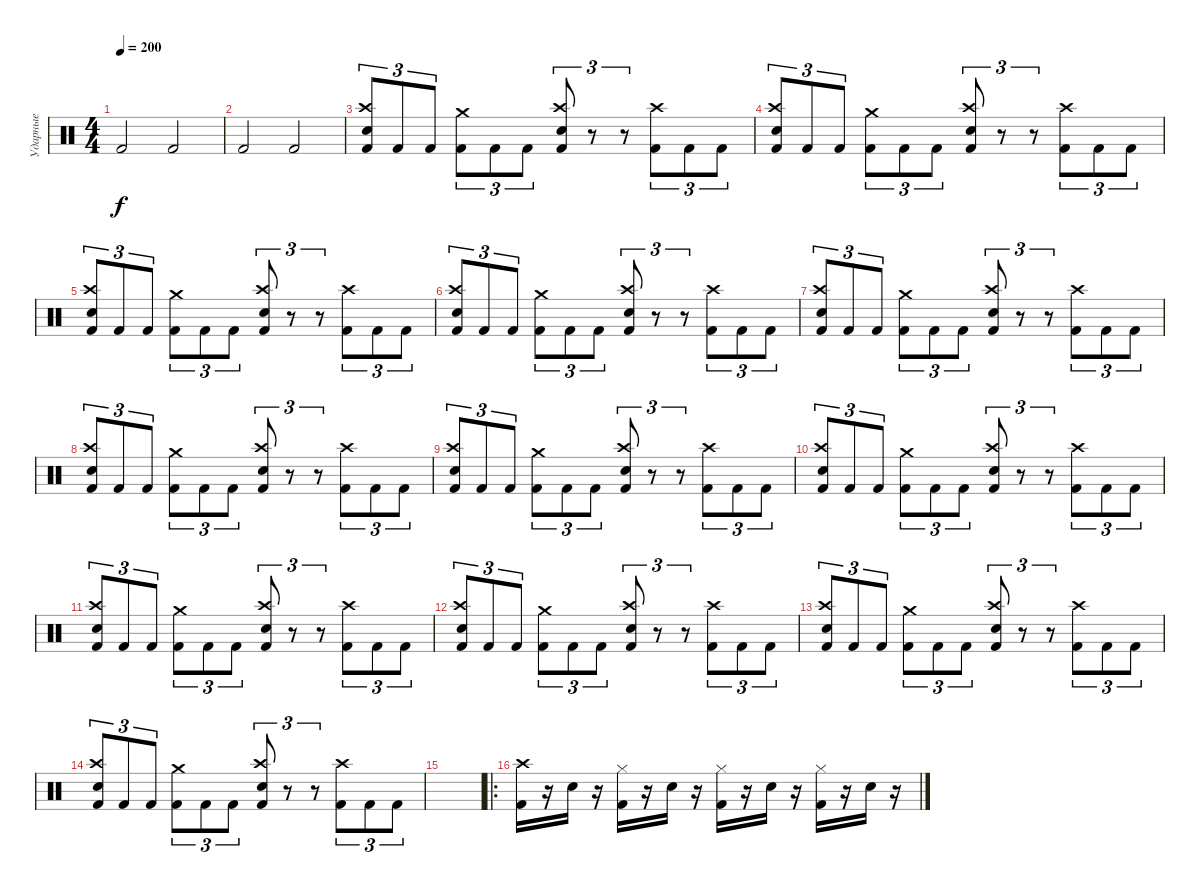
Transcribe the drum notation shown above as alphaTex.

\track ("Ударные" "Ударные") {instrument percussion}
\staff {score}
\articulation defaults
\ts (4 4)
\tempo 200
\clef neutral
\ks c "Kick (hit) 2".2{dy f} "Kick (hit) 2".2
|
"Kick (hit) 2".2 "Kick (hit) 2".2 |
("Crash high (hit)" "Electric Snare (hit)" "Kick (hit) 2").8{tu (3 2)} "Kick (hit) 2".8{tu (3 2)} "Kick (hit) 2".8{tu (3 2)} ("Crash medium (hit)" "Kick (hit) 2").8{tu (3 2)} "Kick (hit) 2".8{tu (3 2)} "Kick (hit) 2".8{tu (3 2)} ("Crash high (hit)" "Electric Snare (hit)" "Kick (hit) 2").8{tu (3 2)} r.8{tu (3 2)} r.8{tu (3 2)} ("Crash high (hit)" "Kick (hit) 2").8{tu (3 2)} "Kick (hit) 2".8{tu (3 2)} "Kick (hit) 2".8{tu (3 2)} |
("Crash high (hit)" "Electric Snare (hit)" "Kick (hit) 2").8{tu (3 2)} "Kick (hit) 2".8{tu (3 2)} "Kick (hit) 2".8{tu (3 2)} ("Crash medium (hit)" "Kick (hit) 2").8{tu (3 2)} "Kick (hit) 2".8{tu (3 2)} "Kick (hit) 2".8{tu (3 2)} ("Crash high (hit)" "Electric Snare (hit)" "Kick (hit) 2").8{tu (3 2)} r.8{tu (3 2)} r.8{tu (3 2)} ("Crash high (hit)" "Kick (hit) 2").8{tu (3 2)} "Kick (hit) 2".8{tu (3 2)} "Kick (hit) 2".8{tu (3 2)} |
("Crash high (hit)" "Electric Snare (hit)" "Kick (hit) 2").8{tu (3 2)} "Kick (hit) 2".8{tu (3 2)} "Kick (hit) 2".8{tu (3 2)} ("Crash medium (hit)" "Kick (hit) 2").8{tu (3 2)} "Kick (hit) 2".8{tu (3 2)} "Kick (hit) 2".8{tu (3 2)} ("Crash high (hit)" "Electric Snare (hit)" "Kick (hit) 2").8{tu (3 2)} r.8{tu (3 2)} r.8{tu (3 2)} ("Crash high (hit)" "Kick (hit) 2").8{tu (3 2)} "Kick (hit) 2".8{tu (3 2)} "Kick (hit) 2".8{tu (3 2)} |
("Crash high (hit)" "Electric Snare (hit)" "Kick (hit) 2").8{tu (3 2)} "Kick (hit) 2".8{tu (3 2)} "Kick (hit) 2".8{tu (3 2)} ("Crash medium (hit)" "Kick (hit) 2").8{tu (3 2)} "Kick (hit) 2".8{tu (3 2)} "Kick (hit) 2".8{tu (3 2)} ("Crash high (hit)" "Electric Snare (hit)" "Kick (hit) 2").8{tu (3 2)} r.8{tu (3 2)} r.8{tu (3 2)} ("Crash high (hit)" "Kick (hit) 2").8{tu (3 2)} "Kick (hit) 2".8{tu (3 2)} "Kick (hit) 2".8{tu (3 2)} |
("Crash high (hit)" "Electric Snare (hit)" "Kick (hit) 2").8{tu (3 2)} "Kick (hit) 2".8{tu (3 2)} "Kick (hit) 2".8{tu (3 2)} ("Crash medium (hit)" "Kick (hit) 2").8{tu (3 2)} "Kick (hit) 2".8{tu (3 2)} "Kick (hit) 2".8{tu (3 2)} ("Crash high (hit)" "Electric Snare (hit)" "Kick (hit) 2").8{tu (3 2)} r.8{tu (3 2)} r.8{tu (3 2)} ("Crash high (hit)" "Kick (hit) 2").8{tu (3 2)} "Kick (hit) 2".8{tu (3 2)} "Kick (hit) 2".8{tu (3 2)} |
("Crash high (hit)" "Electric Snare (hit)" "Kick (hit) 2").8{tu (3 2)} "Kick (hit) 2".8{tu (3 2)} "Kick (hit) 2".8{tu (3 2)} ("Crash medium (hit)" "Kick (hit) 2").8{tu (3 2)} "Kick (hit) 2".8{tu (3 2)} "Kick (hit) 2".8{tu (3 2)} ("Crash high (hit)" "Electric Snare (hit)" "Kick (hit) 2").8{tu (3 2)} r.8{tu (3 2)} r.8{tu (3 2)} ("Crash high (hit)" "Kick (hit) 2").8{tu (3 2)} "Kick (hit) 2".8{tu (3 2)} "Kick (hit) 2".8{tu (3 2)} |
("Crash high (hit)" "Electric Snare (hit)" "Kick (hit) 2").8{tu (3 2)} "Kick (hit) 2".8{tu (3 2)} "Kick (hit) 2".8{tu (3 2)} ("Crash medium (hit)" "Kick (hit) 2").8{tu (3 2)} "Kick (hit) 2".8{tu (3 2)} "Kick (hit) 2".8{tu (3 2)} ("Crash high (hit)" "Electric Snare (hit)" "Kick (hit) 2").8{tu (3 2)} r.8{tu (3 2)} r.8{tu (3 2)} ("Crash high (hit)" "Kick (hit) 2").8{tu (3 2)} "Kick (hit) 2".8{tu (3 2)} "Kick (hit) 2".8{tu (3 2)} |
("Crash high (hit)" "Electric Snare (hit)" "Kick (hit) 2").8{tu (3 2)} "Kick (hit) 2".8{tu (3 2)} "Kick (hit) 2".8{tu (3 2)} ("Crash medium (hit)" "Kick (hit) 2").8{tu (3 2)} "Kick (hit) 2".8{tu (3 2)} "Kick (hit) 2".8{tu (3 2)} ("Crash high (hit)" "Electric Snare (hit)" "Kick (hit) 2").8{tu (3 2)} r.8{tu (3 2)} r.8{tu (3 2)} ("Crash high (hit)" "Kick (hit) 2").8{tu (3 2)} "Kick (hit) 2".8{tu (3 2)} "Kick (hit) 2".8{tu (3 2)} |
("Crash high (hit)" "Electric Snare (hit)" "Kick (hit) 2").8{tu (3 2)} "Kick (hit) 2".8{tu (3 2)} "Kick (hit) 2".8{tu (3 2)} ("Crash medium (hit)" "Kick (hit) 2").8{tu (3 2)} "Kick (hit) 2".8{tu (3 2)} "Kick (hit) 2".8{tu (3 2)} ("Crash high (hit)" "Electric Snare (hit)" "Kick (hit) 2").8{tu (3 2)} r.8{tu (3 2)} r.8{tu (3 2)} ("Crash high (hit)" "Kick (hit) 2").8{tu (3 2)} "Kick (hit) 2".8{tu (3 2)} "Kick (hit) 2".8{tu (3 2)} |
("Crash high (hit)" "Electric Snare (hit)" "Kick (hit) 2").8{tu (3 2)} "Kick (hit) 2".8{tu (3 2)} "Kick (hit) 2".8{tu (3 2)} ("Crash medium (hit)" "Kick (hit) 2").8{tu (3 2)} "Kick (hit) 2".8{tu (3 2)} "Kick (hit) 2".8{tu (3 2)} ("Crash high (hit)" "Electric Snare (hit)" "Kick (hit) 2").8{tu (3 2)} r.8{tu (3 2)} r.8{tu (3 2)} ("Crash high (hit)" "Kick (hit) 2").8{tu (3 2)} "Kick (hit) 2".8{tu (3 2)} "Kick (hit) 2".8{tu (3 2)} |
("Crash high (hit)" "Electric Snare (hit)" "Kick (hit) 2").8{tu (3 2)} "Kick (hit) 2".8{tu (3 2)} "Kick (hit) 2".8{tu (3 2)} ("Crash medium (hit)" "Kick (hit) 2").8{tu (3 2)} "Kick (hit) 2".8{tu (3 2)} "Kick (hit) 2".8{tu (3 2)} ("Crash high (hit)" "Electric Snare (hit)" "Kick (hit) 2").8{tu (3 2)} r.8{tu (3 2)} r.8{tu (3 2)} ("Crash high (hit)" "Kick (hit) 2").8{tu (3 2)} "Kick (hit) 2".8{tu (3 2)} "Kick (hit) 2".8{tu (3 2)} |
("Crash high (hit)" "Electric Snare (hit)" "Kick (hit) 2").8{tu (3 2)} "Kick (hit) 2".8{tu (3 2)} "Kick (hit) 2".8{tu (3 2)} ("Crash medium (hit)" "Kick (hit) 2").8{tu (3 2)} "Kick (hit) 2".8{tu (3 2)} "Kick (hit) 2".8{tu (3 2)} ("Crash high (hit)" "Electric Snare (hit)" "Kick (hit) 2").8{tu (3 2)} r.8{tu (3 2)} r.8{tu (3 2)} ("Crash high (hit)" "Kick (hit) 2").8{tu (3 2)} "Kick (hit) 2".8{tu (3 2)} "Kick (hit) 2".8{tu (3 2)} |
|
\ro
("Crash high (hit)" "Kick (hit) 2").16 r.16 "Electric Snare (hit)".16 r.16 ("Hi-Hat (closed)" "Kick (hit) 2").16 r.16 "Electric Snare (hit)".16 r.16 ("Hi-Hat (closed)" "Kick (hit) 2").16 r.16 "Electric Snare (hit)".16 r.16 ("Hi-Hat (closed)" "Kick (hit) 2").16 r.16 "Electric Snare (hit)".16 r.16
